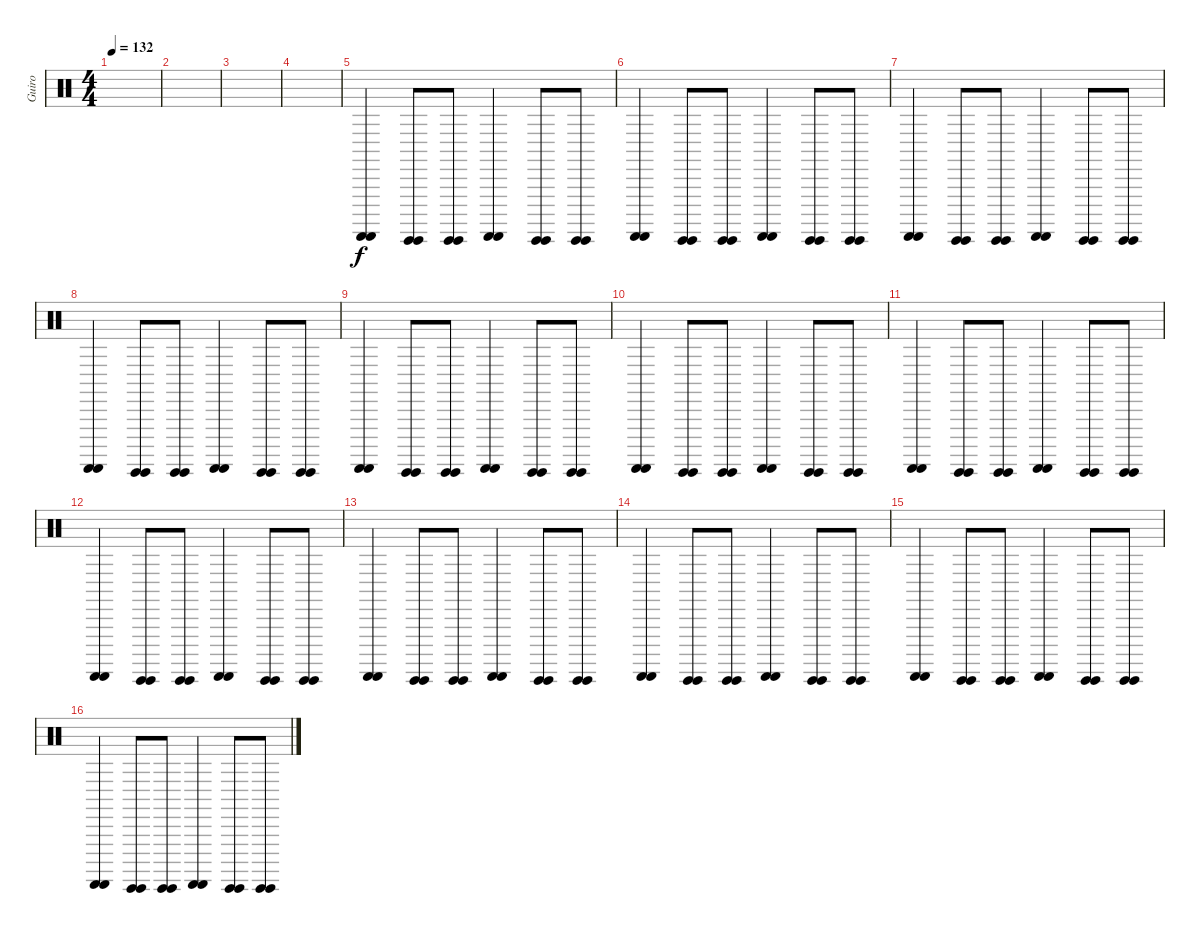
\track ("Guiro" "Guiro") {instrument percussion}
\staff {score}
\articulation defaults
\ts (4 4)
\tempo 132
\clef neutral
\ks c
|
|
|
|
("Guiro (scrap-return)" "Guiro (scrap-return)").4 ("Guiro (hit)" "Guiro (hit)").8 ("Guiro (hit)" "Guiro (hit)").8 ("Guiro (scrap-return)" "Guiro (scrap-return)").4 ("Guiro (hit)" "Guiro (hit)").8 ("Guiro (hit)" "Guiro (hit)").8 |
("Guiro (scrap-return)" "Guiro (scrap-return)").4 ("Guiro (hit)" "Guiro (hit)").8 ("Guiro (hit)" "Guiro (hit)").8 ("Guiro (scrap-return)" "Guiro (scrap-return)").4 ("Guiro (hit)" "Guiro (hit)").8 ("Guiro (hit)" "Guiro (hit)").8 |
("Guiro (scrap-return)" "Guiro (scrap-return)").4 ("Guiro (hit)" "Guiro (hit)").8 ("Guiro (hit)" "Guiro (hit)").8 ("Guiro (scrap-return)" "Guiro (scrap-return)").4 ("Guiro (hit)" "Guiro (hit)").8 ("Guiro (hit)" "Guiro (hit)").8 |
("Guiro (scrap-return)" "Guiro (scrap-return)").4 ("Guiro (hit)" "Guiro (hit)").8 ("Guiro (hit)" "Guiro (hit)").8 ("Guiro (scrap-return)" "Guiro (scrap-return)").4 ("Guiro (hit)" "Guiro (hit)").8 ("Guiro (hit)" "Guiro (hit)").8 |
("Guiro (scrap-return)" "Guiro (scrap-return)").4 ("Guiro (hit)" "Guiro (hit)").8 ("Guiro (hit)" "Guiro (hit)").8 ("Guiro (scrap-return)" "Guiro (scrap-return)").4 ("Guiro (hit)" "Guiro (hit)").8 ("Guiro (hit)" "Guiro (hit)").8 |
("Guiro (scrap-return)" "Guiro (scrap-return)").4 ("Guiro (hit)" "Guiro (hit)").8 ("Guiro (hit)" "Guiro (hit)").8 ("Guiro (scrap-return)" "Guiro (scrap-return)").4 ("Guiro (hit)" "Guiro (hit)").8 ("Guiro (hit)" "Guiro (hit)").8 |
("Guiro (scrap-return)" "Guiro (scrap-return)").4 ("Guiro (hit)" "Guiro (hit)").8 ("Guiro (hit)" "Guiro (hit)").8 ("Guiro (scrap-return)" "Guiro (scrap-return)").4 ("Guiro (hit)" "Guiro (hit)").8 ("Guiro (hit)" "Guiro (hit)").8 |
("Guiro (scrap-return)" "Guiro (scrap-return)").4 ("Guiro (hit)" "Guiro (hit)").8 ("Guiro (hit)" "Guiro (hit)").8 ("Guiro (scrap-return)" "Guiro (scrap-return)").4 ("Guiro (hit)" "Guiro (hit)").8 ("Guiro (hit)" "Guiro (hit)").8 |
("Guiro (scrap-return)" "Guiro (scrap-return)").4 ("Guiro (hit)" "Guiro (hit)").8 ("Guiro (hit)" "Guiro (hit)").8 ("Guiro (scrap-return)" "Guiro (scrap-return)").4 ("Guiro (hit)" "Guiro (hit)").8 ("Guiro (hit)" "Guiro (hit)").8 |
("Guiro (scrap-return)" "Guiro (scrap-return)").4 ("Guiro (hit)" "Guiro (hit)").8 ("Guiro (hit)" "Guiro (hit)").8 ("Guiro (scrap-return)" "Guiro (scrap-return)").4 ("Guiro (hit)" "Guiro (hit)").8 ("Guiro (hit)" "Guiro (hit)").8 |
("Guiro (scrap-return)" "Guiro (scrap-return)").4 ("Guiro (hit)" "Guiro (hit)").8 ("Guiro (hit)" "Guiro (hit)").8 ("Guiro (scrap-return)" "Guiro (scrap-return)").4 ("Guiro (hit)" "Guiro (hit)").8 ("Guiro (hit)" "Guiro (hit)").8 |
("Guiro (scrap-return)" "Guiro (scrap-return)").4 ("Guiro (hit)" "Guiro (hit)").8 ("Guiro (hit)" "Guiro (hit)").8 ("Guiro (scrap-return)" "Guiro (scrap-return)").4 ("Guiro (hit)" "Guiro (hit)").8 ("Guiro (hit)" "Guiro (hit)").8
